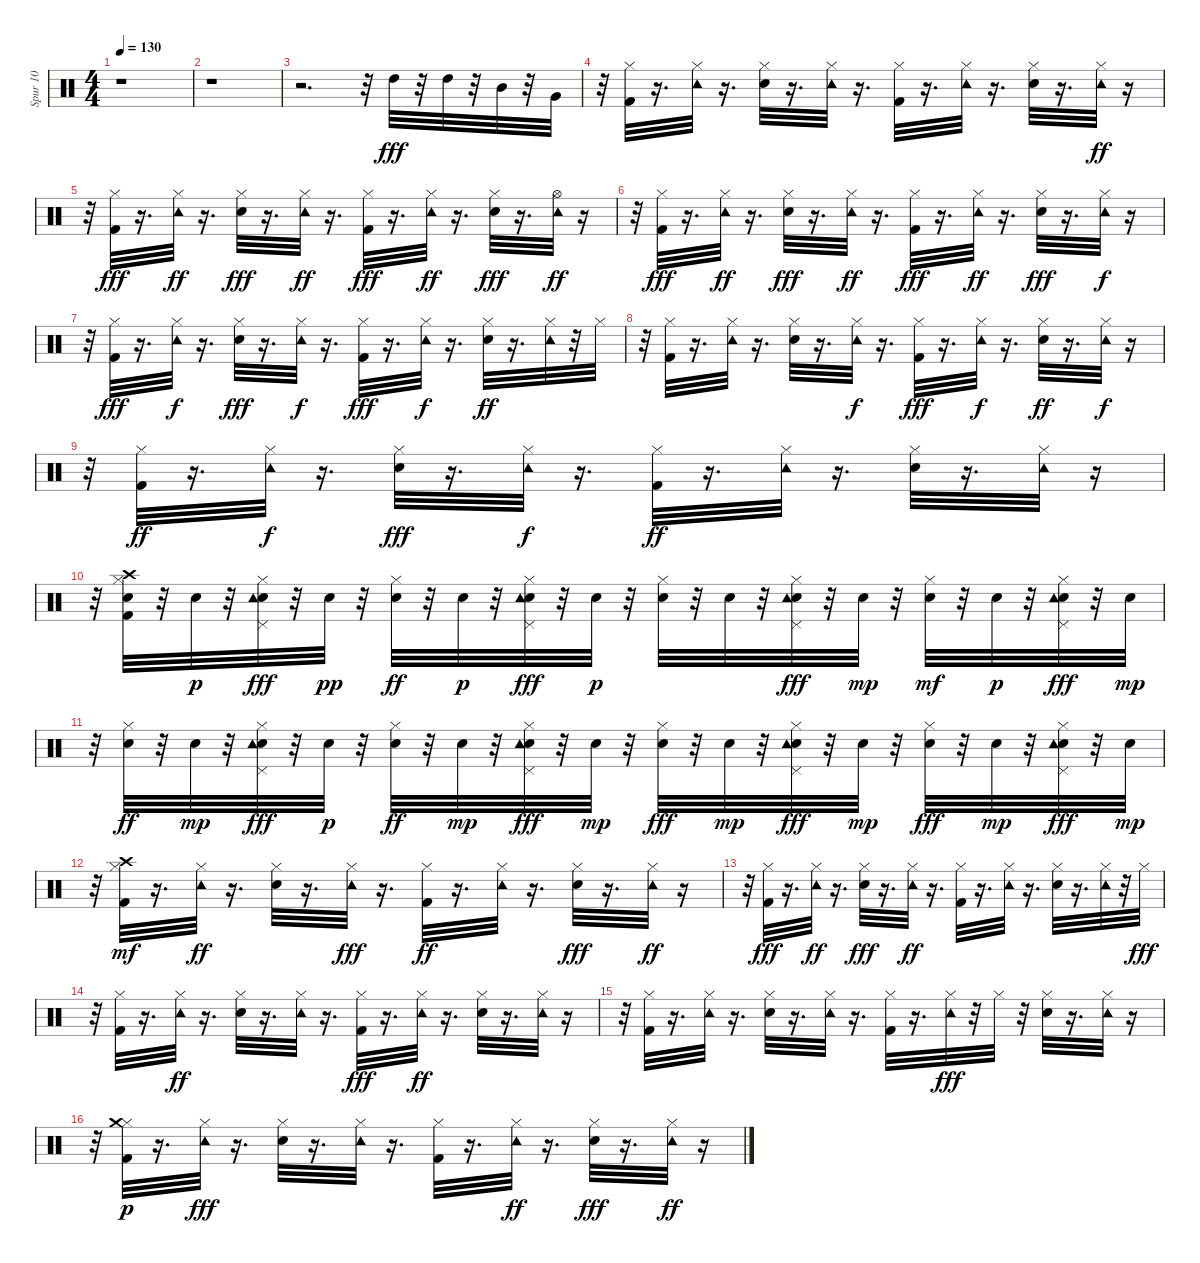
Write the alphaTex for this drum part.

\track ("Spur 10" "Spur 10") {instrument percussion}
\staff {score}
\articulation defaults
\ts (4 4)
\tempo 130
\clef neutral
\ks c
r.1{dy fff} |
r.1 |
r.2{d} r.32 "High Tom (hit)".32{balance 8} r.32 "High Tom (hit)".32 r.32 "Mid Tom (hit)".32 r.32 "Very Low Tom (hit)".32 |
r.32 ("Kick (hit) 2" "Hi-Hat (closed)").32 r.16{d} ("Tambourine (hit)" "Hi-Hat (closed)").32 r.16{d} ("Electric Snare (hit)" "Hi-Hat (closed)").32 r.16{d} ("Tambourine (hit)" "Hi-Hat (closed)").32 r.16{d} ("Kick (hit) 2" "Hi-Hat (closed)").32 r.16{d} ("Tambourine (hit)" "Hi-Hat (closed)").32 r.16{d} ("Electric Snare (hit)" "Hi-Hat (closed)").32 r.16{d} ("Tambourine (hit)" "Hi-Hat (closed)").32{dy ff} r.16 |
r.32 ("Kick (hit) 2" "Hi-Hat (closed)").32{dy fff} r.16{d} ("Tambourine (hit)" "Hi-Hat (closed)").32{dy ff} r.16{d} ("Electric Snare (hit)" "Hi-Hat (closed)").32{dy fff} r.16{d} ("Tambourine (hit)" "Hi-Hat (closed)").32{dy ff} r.16{d} ("Kick (hit) 2" "Hi-Hat (closed)").32{dy fff} r.16{d} ("Tambourine (hit)" "Hi-Hat (closed)").32{dy ff} r.16{d} ("Electric Snare (hit)" "Hi-Hat (closed)").32{dy fff} r.16{d} ("Tambourine (hit)" "Hi-Hat (open)").32{dy ff} r.16 |
r.32 ("Kick (hit) 2" "Hi-Hat (closed)").32{dy fff} r.16{d} ("Tambourine (hit)" "Hi-Hat (closed)").32{dy ff} r.16{d} ("Electric Snare (hit)" "Hi-Hat (closed)").32{dy fff} r.16{d} ("Tambourine (hit)" "Hi-Hat (closed)").32{dy ff} r.16{d} ("Kick (hit) 2" "Hi-Hat (closed)").32{dy fff} r.16{d} ("Tambourine (hit)" "Hi-Hat (closed)").32{dy ff} r.16{d} ("Electric Snare (hit)" "Hi-Hat (closed)").32{dy fff} r.16{d} ("Tambourine (hit)" "Hi-Hat (closed)").32{dy f} r.16 |
r.32 ("Kick (hit) 2" "Hi-Hat (closed)").32{dy fff} r.16{d} ("Tambourine (hit)" "Hi-Hat (closed)").32{dy f} r.16{d} ("Electric Snare (hit)" "Hi-Hat (closed)").32{dy fff} r.16{d} ("Tambourine (hit)" "Hi-Hat (closed)").32{dy f} r.16{d} ("Kick (hit) 2" "Hi-Hat (closed)").32{dy fff} r.16{d} ("Tambourine (hit)" "Hi-Hat (closed)").32{dy f} r.16{d} ("Electric Snare (hit)" "Hi-Hat (closed)").32{dy ff} r.16{d} ("Tambourine (hit)" "Hi-Hat (closed)").32 r.32 "Hi-Hat (closed)".32 |
r.32 ("Kick (hit) 2" "Hi-Hat (closed)").32 r.16{d} ("Tambourine (hit)" "Hi-Hat (closed)").32 r.16{d} ("Electric Snare (hit)" "Hi-Hat (closed)").32 r.16{d} ("Tambourine (hit)" "Hi-Hat (closed)").32{dy f} r.16{d} ("Kick (hit) 2" "Hi-Hat (closed)").32{dy fff} r.16{d} ("Tambourine (hit)" "Hi-Hat (closed)").32{dy f} r.16{d} ("Electric Snare (hit)" "Hi-Hat (closed)").32{dy ff} r.16{d} ("Tambourine (hit)" "Hi-Hat (closed)").32{dy f} r.16 |
r.32 ("Kick (hit) 2" "Hi-Hat (closed)").32{dy ff} r.16{d} ("Tambourine (hit)" "Hi-Hat (closed)").32{dy f} r.16{d} ("Electric Snare (hit)" "Hi-Hat (closed)").32{dy fff} r.16{d} ("Tambourine (hit)" "Hi-Hat (closed)").32{dy f} r.16{d} ("Kick (hit) 2" "Hi-Hat (closed)").32{dy ff} r.16{d} ("Tambourine (hit)" "Hi-Hat (closed)").32 r.16{d} ("Electric Snare (hit)" "Hi-Hat (closed)").32 r.16{d} ("Tambourine (hit)" "Hi-Hat (closed)").32 r.16 |
r.32 ("Kick (hit) 2" "Crash high (hit)" "Electric Snare (hit)" "Hi-Hat (closed)").32 r.32 "Electric Snare (hit)".32{dy p} r.32 ("Electric Snare (hit)" "Tambourine (hit)" "Hi-Hat (closed)" "Pedal Hi-Hat (hit)").32{dy fff} r.32 "Electric Snare (hit)".32{dy pp} r.32 ("Electric Snare (hit)" "Hi-Hat (closed)").32{dy ff} r.32 "Electric Snare (hit)".32{dy p} r.32 ("Electric Snare (hit)" "Tambourine (hit)" "Hi-Hat (closed)" "Pedal Hi-Hat (hit)").32{dy fff} r.32 "Electric Snare (hit)".32{dy p} r.32 ("Electric Snare (hit)" "Hi-Hat (closed)").32 r.32 "Electric Snare (hit)".32 r.32 ("Electric Snare (hit)" "Tambourine (hit)" "Hi-Hat (closed)" "Pedal Hi-Hat (hit)").32{dy fff} r.32 "Electric Snare (hit)".32{dy mp} r.32 ("Electric Snare (hit)" "Hi-Hat (closed)").32{dy mf} r.32 "Electric Snare (hit)".32{dy p} r.32 ("Electric Snare (hit)" "Tambourine (hit)" "Hi-Hat (closed)" "Pedal Hi-Hat (hit)").32{dy fff} r.32 "Electric Snare (hit)".32{dy mp} |
r.32 ("Electric Snare (hit)" "Hi-Hat (closed)").32{dy ff} r.32 "Electric Snare (hit)".32{dy mp} r.32 ("Electric Snare (hit)" "Tambourine (hit)" "Hi-Hat (closed)" "Pedal Hi-Hat (hit)").32{dy fff} r.32 "Electric Snare (hit)".32{dy p} r.32 ("Electric Snare (hit)" "Hi-Hat (closed)").32{dy ff} r.32 "Electric Snare (hit)".32{dy mp} r.32 ("Electric Snare (hit)" "Tambourine (hit)" "Hi-Hat (closed)" "Pedal Hi-Hat (hit)").32{dy fff} r.32 "Electric Snare (hit)".32{dy mp} r.32 ("Electric Snare (hit)" "Hi-Hat (closed)").32{dy fff} r.32 "Electric Snare (hit)".32{dy mp} r.32 ("Electric Snare (hit)" "Tambourine (hit)" "Hi-Hat (closed)" "Pedal Hi-Hat (hit)").32{dy fff} r.32 "Electric Snare (hit)".32{dy mp} r.32 ("Electric Snare (hit)" "Hi-Hat (closed)").32{dy fff} r.32 "Electric Snare (hit)".32{dy mp} r.32 ("Electric Snare (hit)" "Tambourine (hit)" "Hi-Hat (closed)" "Pedal Hi-Hat (hit)").32{dy fff} r.32 "Electric Snare (hit)".32{dy mp} |
r.32 ("Kick (hit) 2" "Hi-Hat (closed)" "Crash high (hit)").32{dy mf} r.16{d} ("Tambourine (hit)" "Hi-Hat (closed)").32{dy ff} r.16{d} ("Electric Snare (hit)" "Hi-Hat (closed)").32 r.16{d} ("Tambourine (hit)" "Hi-Hat (closed)").32{dy fff} r.16{d} ("Kick (hit) 2" "Hi-Hat (closed)").32{dy ff} r.16{d} ("Tambourine (hit)" "Hi-Hat (closed)").32 r.16{d} ("Electric Snare (hit)" "Hi-Hat (closed)").32{dy fff} r.16{d} ("Tambourine (hit)" "Hi-Hat (closed)").32{dy ff} r.16 |
r.32 ("Kick (hit) 2" "Hi-Hat (closed)").32{dy fff} r.16{d} ("Tambourine (hit)" "Hi-Hat (closed)").32{dy ff} r.16{d} ("Electric Snare (hit)" "Hi-Hat (closed)").32{dy fff} r.16{d} ("Tambourine (hit)" "Hi-Hat (closed)").32{dy ff} r.16{d} ("Kick (hit) 2" "Hi-Hat (closed)").32 r.16{d} ("Tambourine (hit)" "Hi-Hat (closed)").32 r.16{d} ("Electric Snare (hit)" "Hi-Hat (closed)").32 r.16{d} ("Tambourine (hit)" "Hi-Hat (closed)").32 r.32 "Hi-Hat (closed)".32{dy fff} |
r.32 ("Kick (hit) 2" "Hi-Hat (closed)").32 r.16{d} ("Tambourine (hit)" "Hi-Hat (closed)").32{dy ff} r.16{d} ("Electric Snare (hit)" "Hi-Hat (closed)").32 r.16{d} ("Tambourine (hit)" "Hi-Hat (closed)").32 r.16{d} ("Kick (hit) 2" "Hi-Hat (closed)").32{dy fff} r.16{d} ("Tambourine (hit)" "Hi-Hat (closed)").32{dy ff} r.16{d} ("Electric Snare (hit)" "Hi-Hat (closed)").32 r.16{d} ("Tambourine (hit)" "Hi-Hat (closed)").32 r.16 |
r.32 ("Kick (hit) 2" "Hi-Hat (closed)").32 r.16{d} ("Tambourine (hit)" "Hi-Hat (closed)").32 r.16{d} ("Electric Snare (hit)" "Hi-Hat (closed)").32 r.16{d} ("Tambourine (hit)" "Hi-Hat (closed)").32 r.16{d} ("Kick (hit) 2" "Hi-Hat (closed)").32 r.16{d} ("Tambourine (hit)" "Hi-Hat (closed)").32{dy fff} r.32 "Hi-Hat (closed)".32 r.32 ("Electric Snare (hit)" "Hi-Hat (closed)").32 r.16{d} ("Tambourine (hit)" "Hi-Hat (closed)").32 r.16 |
r.32 ("Kick (hit) 2" "Hi-Hat (closed)" "Crash medium (hit)").32{dy p} r.16{d} ("Tambourine (hit)" "Hi-Hat (closed)").32{dy fff} r.16{d} ("Electric Snare (hit)" "Hi-Hat (closed)").32 r.16{d} ("Tambourine (hit)" "Hi-Hat (closed)").32 r.16{d} ("Kick (hit) 2" "Hi-Hat (closed)").32 r.16{d} ("Tambourine (hit)" "Hi-Hat (closed)").32{dy ff} r.16{d} ("Electric Snare (hit)" "Hi-Hat (closed)").32{dy fff} r.16{d} ("Tambourine (hit)" "Hi-Hat (closed)").32{dy ff} r.16
